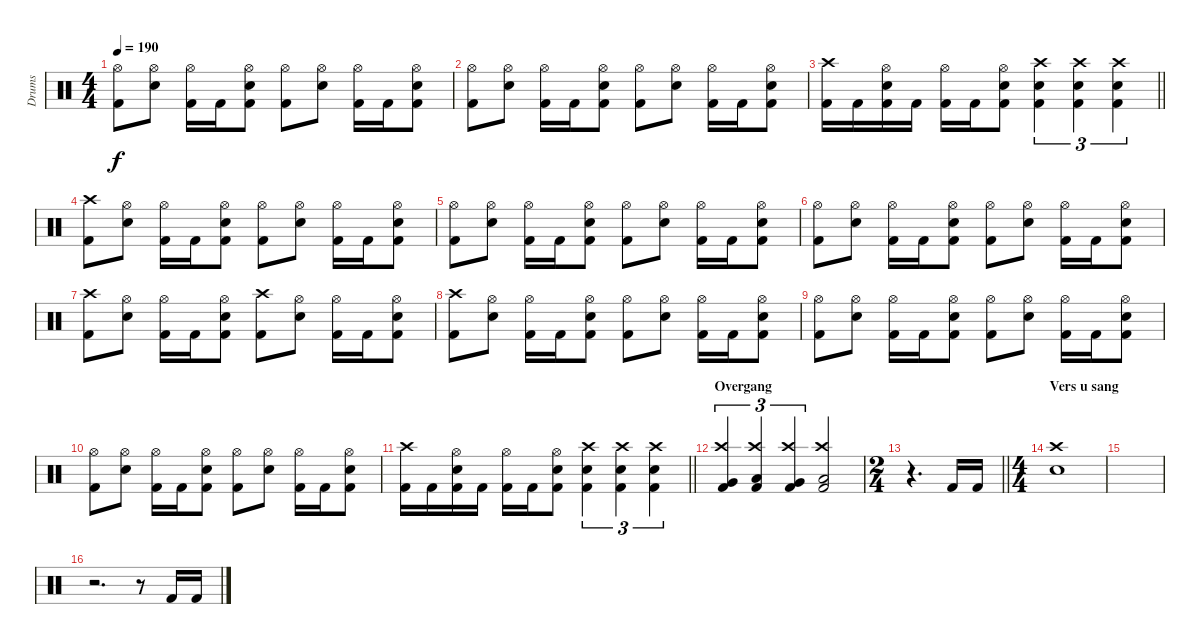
\track ("Drums" "Drums") {instrument percussion}
\staff {score}
\articulation defaults
\ts (4 4)
\tempo 190
\clef neutral
\ks c
("Hi-Hat (open)" "Kick (hit) 2").8{dy f} ("Hi-Hat (open)" "Snare (hit) 2").8 ("Hi-Hat (open)" "Kick (hit) 2").16 "Kick (hit) 2".16 ("Hi-Hat (open)" "Snare (hit) 2" "Kick (hit) 2").8 ("Hi-Hat (open)" "Kick (hit) 2").8 ("Hi-Hat (open)" "Snare (hit) 2").8 ("Hi-Hat (open)" "Kick (hit) 2").16 "Kick (hit) 2".16 ("Hi-Hat (open)" "Snare (hit) 2" "Kick (hit) 2").8 |
("Hi-Hat (open)" "Kick (hit) 2").8 ("Hi-Hat (open)" "Snare (hit) 2").8 ("Hi-Hat (open)" "Kick (hit) 2").16 "Kick (hit) 2".16 ("Hi-Hat (open)" "Snare (hit) 2" "Kick (hit) 2").8 ("Hi-Hat (open)" "Kick (hit) 2").8 ("Hi-Hat (open)" "Snare (hit) 2").8 ("Hi-Hat (open)" "Kick (hit) 2").16 "Kick (hit) 2".16 ("Hi-Hat (open)" "Snare (hit) 2" "Kick (hit) 2").8 |
\barLineRight lightlight
("Crash high (hit)" "Kick (hit) 2").16 "Kick (hit) 2".16 ("Hi-Hat (open)" "Snare (hit) 2" "Kick (hit) 2").16 "Kick (hit) 2".16 ("Hi-Hat (open)" "Kick (hit) 2").16 "Kick (hit) 2".16 ("Hi-Hat (open)" "Snare (hit) 2" "Kick (hit) 2").8 ("Crash high (hit)" "Snare (hit) 2" "Kick (hit) 2").4{tu (3 2)} ("Crash high (hit)" "Snare (hit) 2" "Kick (hit) 2").4{tu (3 2)} ("Crash high (hit)" "Snare (hit) 2" "Kick (hit) 2").4{tu (3 2)} |
("Crash high (hit)" "Kick (hit) 2").8 ("Hi-Hat (open)" "Snare (hit) 2").8 ("Hi-Hat (open)" "Kick (hit) 2").16 "Kick (hit) 2".16 ("Hi-Hat (open)" "Snare (hit) 2" "Kick (hit) 2").8 ("Hi-Hat (open)" "Kick (hit) 2").8 ("Hi-Hat (open)" "Snare (hit) 2").8 ("Hi-Hat (open)" "Kick (hit) 2").16 "Kick (hit) 2".16 ("Hi-Hat (open)" "Snare (hit) 2" "Kick (hit) 2").8 |
("Hi-Hat (open)" "Kick (hit) 2").8 ("Hi-Hat (open)" "Snare (hit) 2").8 ("Hi-Hat (open)" "Kick (hit) 2").16 "Kick (hit) 2".16 ("Hi-Hat (open)" "Snare (hit) 2" "Kick (hit) 2").8 ("Hi-Hat (open)" "Kick (hit) 2").8 ("Hi-Hat (open)" "Snare (hit) 2").8 ("Hi-Hat (open)" "Kick (hit) 2").16 "Kick (hit) 2".16 ("Hi-Hat (open)" "Snare (hit) 2" "Kick (hit) 2").8 |
("Hi-Hat (open)" "Kick (hit) 2").8 ("Hi-Hat (open)" "Snare (hit) 2").8 ("Hi-Hat (open)" "Kick (hit) 2").16 "Kick (hit) 2".16 ("Hi-Hat (open)" "Snare (hit) 2" "Kick (hit) 2").8 ("Hi-Hat (open)" "Kick (hit) 2").8 ("Hi-Hat (open)" "Snare (hit) 2").8 ("Hi-Hat (open)" "Kick (hit) 2").16 "Kick (hit) 2".16 ("Hi-Hat (open)" "Snare (hit) 2" "Kick (hit) 2").8 |
("Crash high (hit)" "Kick (hit) 2").8 ("Hi-Hat (open)" "Snare (hit) 2").8 ("Hi-Hat (open)" "Kick (hit) 2").16 "Kick (hit) 2".16 ("Hi-Hat (open)" "Snare (hit) 2" "Kick (hit) 2").8 ("Crash high (hit)" "Kick (hit) 2").8 ("Hi-Hat (open)" "Snare (hit) 2").8 ("Hi-Hat (open)" "Kick (hit) 2").16 "Kick (hit) 2".16 ("Hi-Hat (open)" "Snare (hit) 2" "Kick (hit) 2").8 |
("Crash high (hit)" "Kick (hit) 2").8 ("Hi-Hat (open)" "Snare (hit) 2").8 ("Hi-Hat (open)" "Kick (hit) 2").16 "Kick (hit) 2".16 ("Hi-Hat (open)" "Snare (hit) 2" "Kick (hit) 2").8 ("Hi-Hat (open)" "Kick (hit) 2").8 ("Hi-Hat (open)" "Snare (hit) 2").8 ("Hi-Hat (open)" "Kick (hit) 2").16 "Kick (hit) 2".16 ("Hi-Hat (open)" "Snare (hit) 2" "Kick (hit) 2").8 |
("Hi-Hat (open)" "Kick (hit) 2").8 ("Hi-Hat (open)" "Snare (hit) 2").8 ("Hi-Hat (open)" "Kick (hit) 2").16 "Kick (hit) 2".16 ("Hi-Hat (open)" "Snare (hit) 2" "Kick (hit) 2").8 ("Hi-Hat (open)" "Kick (hit) 2").8 ("Hi-Hat (open)" "Snare (hit) 2").8 ("Hi-Hat (open)" "Kick (hit) 2").16 "Kick (hit) 2".16 ("Hi-Hat (open)" "Snare (hit) 2" "Kick (hit) 2").8 |
("Hi-Hat (open)" "Kick (hit) 2").8 ("Hi-Hat (open)" "Snare (hit) 2").8 ("Hi-Hat (open)" "Kick (hit) 2").16 "Kick (hit) 2".16 ("Hi-Hat (open)" "Snare (hit) 2" "Kick (hit) 2").8 ("Hi-Hat (open)" "Kick (hit) 2").8 ("Hi-Hat (open)" "Snare (hit) 2").8 ("Hi-Hat (open)" "Kick (hit) 2").16 "Kick (hit) 2".16 ("Hi-Hat (open)" "Snare (hit) 2" "Kick (hit) 2").8 |
\barLineRight lightlight
("Crash high (hit)" "Kick (hit) 2").16 "Kick (hit) 2".16 ("Hi-Hat (open)" "Snare (hit) 2" "Kick (hit) 2").16 "Kick (hit) 2".16 ("Hi-Hat (open)" "Kick (hit) 2").16 "Kick (hit) 2".16 ("Hi-Hat (open)" "Snare (hit) 2" "Kick (hit) 2").8 ("Crash high (hit)" "Snare (hit) 2" "Kick (hit) 2").4{tu (3 2)} ("Crash high (hit)" "Snare (hit) 2" "Kick (hit) 2").4{tu (3 2)} ("Crash high (hit)" "Snare (hit) 2" "Kick (hit) 2").4{tu (3 2)} |
\section ("" "Overgang")
("Crash high (hit)" "Very Low Tom (hit)" "Kick (hit) 2").4{tu (3 2)} ("Crash high (hit)" "Low Floor Tom (hit)" "Kick (hit) 2").4{tu (3 2)} ("Crash high (hit)" "Very Low Tom (hit)" "Kick (hit) 2").4{tu (3 2)} ("Crash high (hit)" "Low Floor Tom (hit)" "Kick (hit) 2").2 |
\ts (2 4)
\barLineRight lightlight
r.4{d} "Kick (hit) 2".16 "Kick (hit) 2".16 |
\ts (4 4)
\section ("" "Vers u sang")
("Crash high (hit)" "Snare (hit) 2").1 |
|
r.2{d} r.8 "Kick (hit) 2".16 "Kick (hit) 2".16
